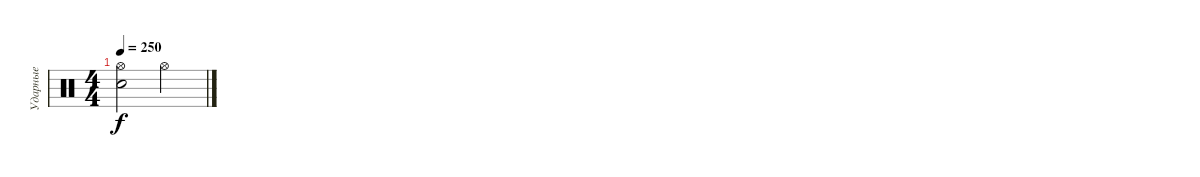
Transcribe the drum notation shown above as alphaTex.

\track ("Ударные" "Ударные") {instrument percussion}
\staff {score}
\articulation defaults
\ts (4 4)
\tempo 250
\clef neutral
\ks c
("Snare (hit) 2" "Hi-Hat (open)").2{dy f} "Hi-Hat (open)".2
